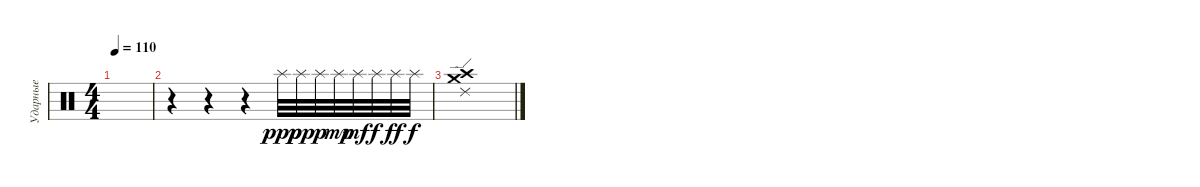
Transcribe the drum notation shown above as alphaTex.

\track ("Ударные" "Ударные") {instrument percussion}
\staff {score}
\articulation defaults
\ts (4 4)
\tempo 110
\clef neutral
\ks c
|
r.4 r.4 r.4 "Splash (hit)".32{dy ppp} "Splash (hit)".32{dy pp} "Splash (hit)".32{dy p} "Splash (hit)".32{dy mp} "Splash (hit)".32{dy mf} "Splash (hit)".32{dy f} "Splash (hit)".32{dy ff} "Splash (hit)".32{dy f} |
("Ride (edge) 2" "Crash medium (hit)" "Crash high (hit)").1
